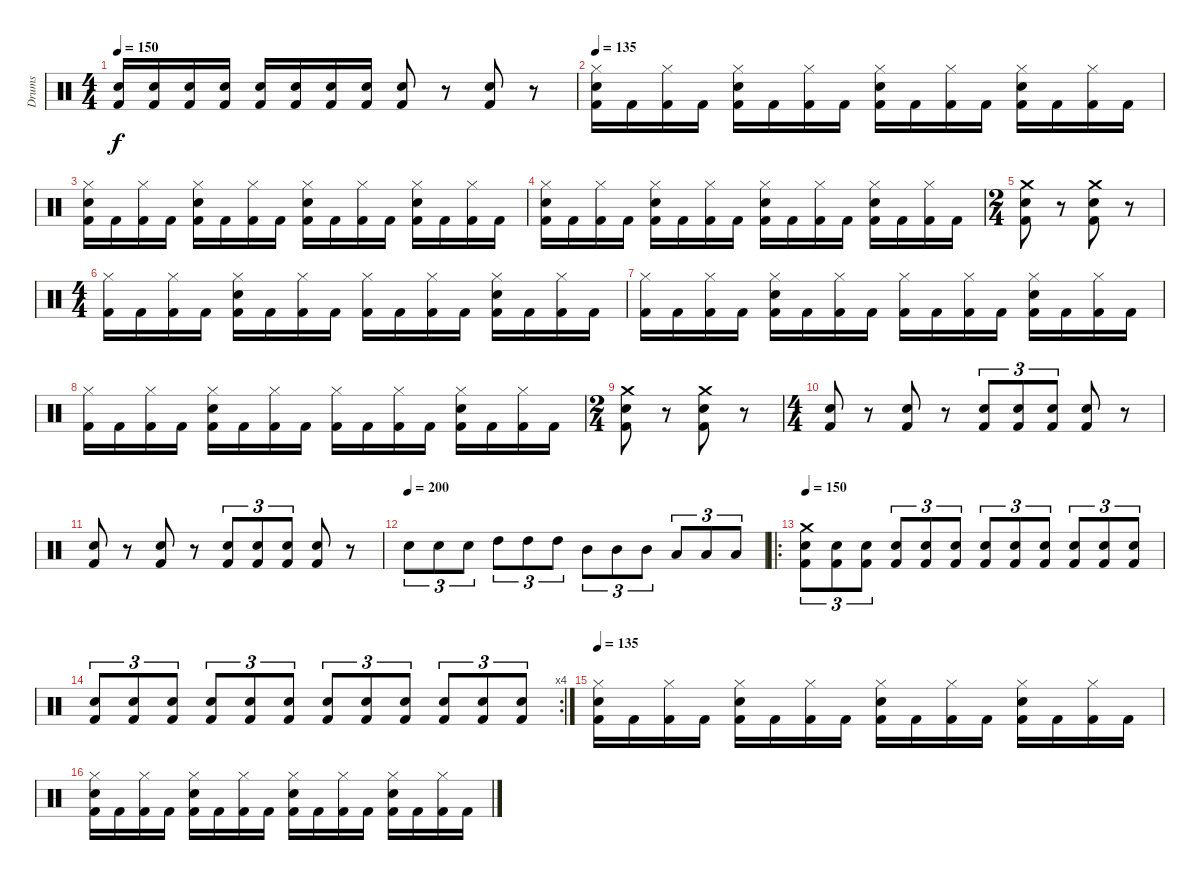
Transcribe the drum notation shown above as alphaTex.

\track ("Drums" "Drums") {instrument percussion}
\staff {score}
\articulation defaults
\ts (4 4)
\tempo 150
\clef neutral
\ks c
("Kick (hit) 2" "Snare (hit) 2").16{dy f} ("Kick (hit) 2" "Snare (hit) 2").16 ("Kick (hit) 2" "Snare (hit) 2").16 ("Kick (hit) 2" "Snare (hit) 2").16 ("Kick (hit) 2" "Snare (hit) 2").16 ("Kick (hit) 2" "Snare (hit) 2").16 ("Kick (hit) 2" "Snare (hit) 2").16 ("Kick (hit) 2" "Snare (hit) 2").16 ("Kick (hit) 2" "Snare (hit) 2").8 r.8 ("Kick (hit) 2" "Snare (hit) 2").8 r.8 |
\tempo 135
("Kick (hit) 2" "Snare (hit) 2" "Hi-Hat (closed)").16 "Kick (hit) 2".16 ("Kick (hit) 2" "Hi-Hat (closed)").16 "Kick (hit) 2".16 ("Kick (hit) 2" "Snare (hit) 2" "Hi-Hat (closed)").16 "Kick (hit) 2".16 ("Kick (hit) 2" "Hi-Hat (closed)").16 "Kick (hit) 2".16 ("Kick (hit) 2" "Snare (hit) 2" "Hi-Hat (closed)").16 "Kick (hit) 2".16 ("Kick (hit) 2" "Hi-Hat (closed)").16 "Kick (hit) 2".16 ("Kick (hit) 2" "Snare (hit) 2" "Hi-Hat (closed)").16 "Kick (hit) 2".16 ("Kick (hit) 2" "Hi-Hat (closed)").16 "Kick (hit) 2".16 |
("Kick (hit) 2" "Snare (hit) 2" "Hi-Hat (closed)").16 "Kick (hit) 2".16 ("Kick (hit) 2" "Hi-Hat (closed)").16 "Kick (hit) 2".16 ("Kick (hit) 2" "Snare (hit) 2" "Hi-Hat (closed)").16 "Kick (hit) 2".16 ("Kick (hit) 2" "Hi-Hat (closed)").16 "Kick (hit) 2".16 ("Kick (hit) 2" "Snare (hit) 2" "Hi-Hat (closed)").16 "Kick (hit) 2".16 ("Kick (hit) 2" "Hi-Hat (closed)").16 "Kick (hit) 2".16 ("Kick (hit) 2" "Snare (hit) 2" "Hi-Hat (closed)").16 "Kick (hit) 2".16 ("Kick (hit) 2" "Hi-Hat (closed)").16 "Kick (hit) 2".16 |
("Kick (hit) 2" "Snare (hit) 2" "Hi-Hat (closed)").16 "Kick (hit) 2".16 ("Kick (hit) 2" "Hi-Hat (closed)").16 "Kick (hit) 2".16 ("Kick (hit) 2" "Snare (hit) 2" "Hi-Hat (closed)").16 "Kick (hit) 2".16 ("Kick (hit) 2" "Hi-Hat (closed)").16 "Kick (hit) 2".16 ("Kick (hit) 2" "Snare (hit) 2" "Hi-Hat (closed)").16 "Kick (hit) 2".16 ("Kick (hit) 2" "Hi-Hat (closed)").16 "Kick (hit) 2".16 ("Kick (hit) 2" "Snare (hit) 2" "Hi-Hat (closed)").16 "Kick (hit) 2".16 ("Kick (hit) 2" "Hi-Hat (closed)").16 "Kick (hit) 2".16 |
\ts (2 4)
("Kick (hit) 2" "Snare (hit) 2" "Crash medium (hit)").8 r.8 ("Kick (hit) 2" "Snare (hit) 2" "Crash medium (hit)").8 r.8 |
\ts (4 4)
("Kick (hit) 2" "Hi-Hat (closed)").16 "Kick (hit) 2".16 ("Kick (hit) 2" "Hi-Hat (closed)").16 "Kick (hit) 2".16 ("Kick (hit) 2" "Snare (hit) 2" "Hi-Hat (closed)").16 "Kick (hit) 2".16 ("Kick (hit) 2" "Hi-Hat (closed)").16 "Kick (hit) 2".16 ("Kick (hit) 2" "Hi-Hat (closed)").16 "Kick (hit) 2".16 ("Kick (hit) 2" "Hi-Hat (closed)").16 "Kick (hit) 2".16 ("Kick (hit) 2" "Snare (hit) 2" "Hi-Hat (closed)").16 "Kick (hit) 2".16 ("Kick (hit) 2" "Hi-Hat (closed)").16 "Kick (hit) 2".16 |
("Kick (hit) 2" "Hi-Hat (closed)").16 "Kick (hit) 2".16 ("Kick (hit) 2" "Hi-Hat (closed)").16 "Kick (hit) 2".16 ("Kick (hit) 2" "Snare (hit) 2" "Hi-Hat (closed)").16 "Kick (hit) 2".16 ("Kick (hit) 2" "Hi-Hat (closed)").16 "Kick (hit) 2".16 ("Kick (hit) 2" "Hi-Hat (closed)").16 "Kick (hit) 2".16 ("Kick (hit) 2" "Hi-Hat (closed)").16 "Kick (hit) 2".16 ("Kick (hit) 2" "Snare (hit) 2" "Hi-Hat (closed)").16 "Kick (hit) 2".16 ("Kick (hit) 2" "Hi-Hat (closed)").16 "Kick (hit) 2".16 |
("Kick (hit) 2" "Hi-Hat (closed)").16 "Kick (hit) 2".16 ("Kick (hit) 2" "Hi-Hat (closed)").16 "Kick (hit) 2".16 ("Kick (hit) 2" "Snare (hit) 2" "Hi-Hat (closed)").16 "Kick (hit) 2".16 ("Kick (hit) 2" "Hi-Hat (closed)").16 "Kick (hit) 2".16 ("Kick (hit) 2" "Hi-Hat (closed)").16 "Kick (hit) 2".16 ("Kick (hit) 2" "Hi-Hat (closed)").16 "Kick (hit) 2".16 ("Kick (hit) 2" "Snare (hit) 2" "Hi-Hat (closed)").16 "Kick (hit) 2".16 ("Kick (hit) 2" "Hi-Hat (closed)").16 "Kick (hit) 2".16 |
\ts (2 4)
("Kick (hit) 2" "Snare (hit) 2" "Crash medium (hit)").8 r.8 ("Kick (hit) 2" "Snare (hit) 2" "Crash medium (hit)").8 r.8 |
\ts (4 4)
("Kick (hit) 2" "Snare (hit) 2").8 r.8 ("Kick (hit) 2" "Snare (hit) 2").8 r.8 ("Kick (hit) 2" "Snare (hit) 2").8{tu (3 2)} ("Kick (hit) 2" "Snare (hit) 2").8{tu (3 2)} ("Kick (hit) 2" "Snare (hit) 2").8{tu (3 2)} ("Kick (hit) 2" "Snare (hit) 2").8 r.8 |
("Kick (hit) 2" "Snare (hit) 2").8 r.8 ("Kick (hit) 2" "Snare (hit) 2").8 r.8 ("Kick (hit) 2" "Snare (hit) 2").8{tu (3 2)} ("Kick (hit) 2" "Snare (hit) 2").8{tu (3 2)} ("Kick (hit) 2" "Snare (hit) 2").8{tu (3 2)} ("Kick (hit) 2" "Snare (hit) 2").8 r.8 |
\tempo (200)
"Snare (hit) 2".8{tu (3 2)} "Snare (hit) 2".8{tu (3 2)} "Snare (hit) 2".8{tu (3 2)} "High Tom (hit)".8{tu (3 2)} "High Tom (hit)".8{tu (3 2)} "High Tom (hit)".8{tu (3 2)} "Mid Tom (hit)".8{tu (3 2)} "Mid Tom (hit)".8{tu (3 2)} "Mid Tom (hit)".8{tu (3 2)} "Low Tom (hit)".8{tu (3 2)} "Low Tom (hit)".8{tu (3 2)} "Low Tom (hit)".8{tu (3 2)} |
\ro
\tempo 150
("Kick (hit) 2" "Snare (hit) 2" "Crash medium (hit)").8{tu (3 2)} ("Kick (hit) 2" "Snare (hit) 2").8{tu (3 2)} ("Kick (hit) 2" "Snare (hit) 2").8{tu (3 2)} ("Kick (hit) 2" "Snare (hit) 2").8{tu (3 2)} ("Kick (hit) 2" "Snare (hit) 2").8{tu (3 2)} ("Kick (hit) 2" "Snare (hit) 2").8{tu (3 2)} ("Kick (hit) 2" "Snare (hit) 2").8{tu (3 2)} ("Kick (hit) 2" "Snare (hit) 2").8{tu (3 2)} ("Kick (hit) 2" "Snare (hit) 2").8{tu (3 2)} ("Kick (hit) 2" "Snare (hit) 2").8{tu (3 2)} ("Kick (hit) 2" "Snare (hit) 2").8{tu (3 2)} ("Kick (hit) 2" "Snare (hit) 2").8{tu (3 2)} |
\rc 4
("Kick (hit) 2" "Snare (hit) 2").8{tu (3 2)} ("Kick (hit) 2" "Snare (hit) 2").8{tu (3 2)} ("Kick (hit) 2" "Snare (hit) 2").8{tu (3 2)} ("Kick (hit) 2" "Snare (hit) 2").8{tu (3 2)} ("Kick (hit) 2" "Snare (hit) 2").8{tu (3 2)} ("Kick (hit) 2" "Snare (hit) 2").8{tu (3 2)} ("Kick (hit) 2" "Snare (hit) 2").8{tu (3 2)} ("Kick (hit) 2" "Snare (hit) 2").8{tu (3 2)} ("Kick (hit) 2" "Snare (hit) 2").8{tu (3 2)} ("Snare (hit) 2" "Kick (hit) 2").8{tu (3 2)} ("Snare (hit) 2" "Kick (hit) 2").8{tu (3 2)} ("Snare (hit) 2" "Kick (hit) 2").8{tu (3 2)} |
\tempo 135
("Kick (hit) 2" "Snare (hit) 2" "Hi-Hat (closed)").16 "Kick (hit) 2".16 ("Kick (hit) 2" "Hi-Hat (closed)").16 "Kick (hit) 2".16 ("Kick (hit) 2" "Snare (hit) 2" "Hi-Hat (closed)").16 "Kick (hit) 2".16 ("Kick (hit) 2" "Hi-Hat (closed)").16 "Kick (hit) 2".16 ("Kick (hit) 2" "Snare (hit) 2" "Hi-Hat (closed)").16 "Kick (hit) 2".16 ("Kick (hit) 2" "Hi-Hat (closed)").16 "Kick (hit) 2".16 ("Kick (hit) 2" "Snare (hit) 2" "Hi-Hat (closed)").16 "Kick (hit) 2".16 ("Kick (hit) 2" "Hi-Hat (closed)").16 "Kick (hit) 2".16 |
("Kick (hit) 2" "Snare (hit) 2" "Hi-Hat (closed)").16 "Kick (hit) 2".16 ("Kick (hit) 2" "Hi-Hat (closed)").16 "Kick (hit) 2".16 ("Kick (hit) 2" "Snare (hit) 2" "Hi-Hat (closed)").16 "Kick (hit) 2".16 ("Kick (hit) 2" "Hi-Hat (closed)").16 "Kick (hit) 2".16 ("Kick (hit) 2" "Snare (hit) 2" "Hi-Hat (closed)").16 "Kick (hit) 2".16 ("Kick (hit) 2" "Hi-Hat (closed)").16 "Kick (hit) 2".16 ("Kick (hit) 2" "Snare (hit) 2" "Hi-Hat (closed)").16 "Kick (hit) 2".16 ("Kick (hit) 2" "Hi-Hat (closed)").16 "Kick (hit) 2".16
